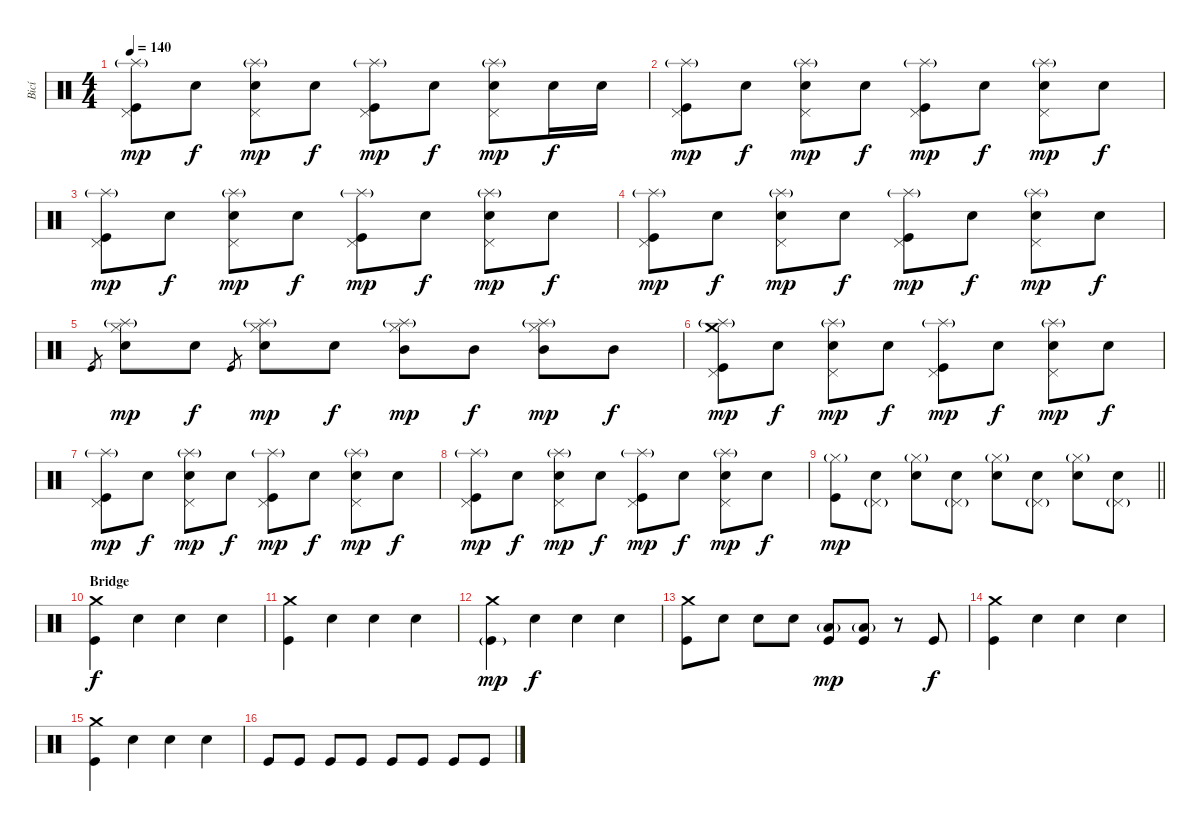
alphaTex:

\track ("Bicí" "Bicí") {instrument percussion}
\staff {score}
\articulation defaults
\ts (4 4)
\tempo 140
\clef neutral
\ks c
("Splash (hit)"{g} "Pedal Hi-Hat (hit)" "Kick (hit)").8{dy mp} "Snare (hit)".8{dy f} ("Splash (hit)"{g} "Pedal Hi-Hat (hit)" "Electric Snare (hit)").8{dy mp} "Snare (hit)".8{dy f} ("Splash (hit)"{g} "Pedal Hi-Hat (hit)" "Kick (hit)").8{dy mp} "Snare (hit)".8{dy f} ("Splash (hit)"{g} "Pedal Hi-Hat (hit)" "Electric Snare (hit)").8{dy mp} "Electric Snare (hit)".16{dy f} "Electric Snare (hit)".16 |
("Splash (hit)"{g} "Pedal Hi-Hat (hit)" "Kick (hit)").8{dy mp} "Snare (hit)".8{dy f} ("Splash (hit)"{g} "Pedal Hi-Hat (hit)" "Electric Snare (hit)").8{dy mp} "Snare (hit)".8{dy f} ("Splash (hit)"{g} "Pedal Hi-Hat (hit)" "Kick (hit)").8{dy mp} "Snare (hit)".8{dy f} ("Splash (hit)"{g} "Pedal Hi-Hat (hit)" "Electric Snare (hit)").8{dy mp} "Snare (hit)".8{dy f} |
("Splash (hit)"{g} "Pedal Hi-Hat (hit)" "Kick (hit)").8{dy mp} "Snare (hit)".8{dy f} ("Splash (hit)"{g} "Pedal Hi-Hat (hit)" "Electric Snare (hit)").8{dy mp} "Snare (hit)".8{dy f} ("Splash (hit)"{g} "Pedal Hi-Hat (hit)" "Kick (hit)").8{dy mp} "Snare (hit)".8{dy f} ("Splash (hit)"{g} "Pedal Hi-Hat (hit)" "Electric Snare (hit)").8{dy mp} "Snare (hit)".8{dy f} |
("Splash (hit)"{g} "Pedal Hi-Hat (hit)" "Kick (hit)").8{dy mp} "Snare (hit)".8{dy f} ("Splash (hit)"{g} "Pedal Hi-Hat (hit)" "Electric Snare (hit)").8{dy mp} "Snare (hit)".8{dy f} ("Splash (hit)"{g} "Pedal Hi-Hat (hit)" "Kick (hit)").8{dy mp} "Snare (hit)".8{dy f} ("Splash (hit)"{g} "Pedal Hi-Hat (hit)" "Electric Snare (hit)").8{dy mp} "Snare (hit)".8{dy f} |
"Kick (hit)".8{gr} ("Splash (hit)"{g} "Hi-Hat (closed)" "Electric Snare (hit)").8{dy mp} "Snare (hit)".8{dy f} "Kick (hit)".8{gr} ("Splash (hit)"{g} "Hi-Hat (closed)" "Electric Snare (hit)").8{dy mp} "Snare (hit)".8{dy f} ("Splash (hit)"{g} "Hi-Hat (closed)" "Mid Tom (hit)").8{dy mp} "Mid Tom (hit)".8{dy f} ("Splash (hit)"{g} "Hi-Hat (closed)" "Mid Tom (hit)").8{dy mp} "Mid Tom (hit)".8{dy f} |
("Crash medium (hit)" "Splash (hit)"{g} "Pedal Hi-Hat (hit)" "Kick (hit)").8{dy mp} "Snare (hit)".8{dy f} ("Splash (hit)"{g} "Pedal Hi-Hat (hit)" "Electric Snare (hit)").8{dy mp} "Snare (hit)".8{dy f} ("Splash (hit)"{g} "Pedal Hi-Hat (hit)" "Kick (hit)").8{dy mp} "Snare (hit)".8{dy f} ("Splash (hit)"{g} "Pedal Hi-Hat (hit)" "Electric Snare (hit)").8{dy mp} "Snare (hit)".8{dy f} |
("Splash (hit)"{g} "Pedal Hi-Hat (hit)" "Kick (hit)").8{dy mp} "Snare (hit)".8{dy f} ("Splash (hit)"{g} "Pedal Hi-Hat (hit)" "Electric Snare (hit)").8{dy mp} "Snare (hit)".8{dy f} ("Splash (hit)"{g} "Pedal Hi-Hat (hit)" "Kick (hit)").8{dy mp} "Snare (hit)".8{dy f} ("Splash (hit)"{g} "Pedal Hi-Hat (hit)" "Electric Snare (hit)").8{dy mp} "Snare (hit)".8{dy f} |
("Splash (hit)"{g} "Pedal Hi-Hat (hit)" "Kick (hit)").8{dy mp} "Snare (hit)".8{dy f} ("Splash (hit)"{g} "Pedal Hi-Hat (hit)" "Electric Snare (hit)").8{dy mp} "Snare (hit)".8{dy f} ("Splash (hit)"{g} "Pedal Hi-Hat (hit)" "Kick (hit)").8{dy mp} "Snare (hit)".8{dy f} ("Splash (hit)"{g} "Pedal Hi-Hat (hit)" "Electric Snare (hit)").8{dy mp} "Snare (hit)".8{dy f} |
\barLineRight lightlight
("Hi-Hat (closed)"{g} "Kick (hit)").8{dy mp} ("Pedal Hi-Hat (hit)"{g} "Snare (hit)").8 ("Hi-Hat (closed)"{g} "Snare (hit)").8 ("Pedal Hi-Hat (hit)"{g} "Snare (hit)").8 ("Hi-Hat (closed)"{g} "Electric Snare (hit)").8 ("Pedal Hi-Hat (hit)"{g} "Snare (hit)").8 ("Hi-Hat (closed)"{g} "Snare (hit)").8 ("Pedal Hi-Hat (hit)"{g} "Snare (hit)").8 |
\section ("" "Bridge")
("Crash medium (hit)" "Kick (hit)").4{dy f} "Snare (hit)".4 "Electric Snare (hit)".4 "Snare (hit)".4 |
("Crash medium (hit)" "Kick (hit)").4 "Snare (hit)".4 "Electric Snare (hit)".4 "Snare (hit)".4 |
("Crash medium (hit)" "Kick (hit)"{g}).4{dy mp} "Snare (hit)".4{dy f} "Electric Snare (hit)".4 "Electric Snare (hit)".4 |
("Crash medium (hit)" "Kick (hit)").8 "Snare (hit)".8 "Electric Snare (hit)".8 "Snare (hit)".8 ("Kick (hit)" "Low Floor Tom (hit)"{g}).8{dy mp} ("Kick (hit)" "Low Floor Tom (hit)"{g}).8 r.8 "Kick (hit)".8{dy f} |
("Crash medium (hit)" "Kick (hit)").4 "Snare (hit)".4 "Electric Snare (hit)".4 "Snare (hit)".4 |
("Crash medium (hit)" "Kick (hit)").4 "Snare (hit)".4 "Electric Snare (hit)".4 "Snare (hit)".4 |
"Kick (hit)".8 "Kick (hit)".8 "Kick (hit)".8 "Kick (hit)".8 "Kick (hit)".8 "Kick (hit)".8 "Kick (hit)".8 "Kick (hit)".8
